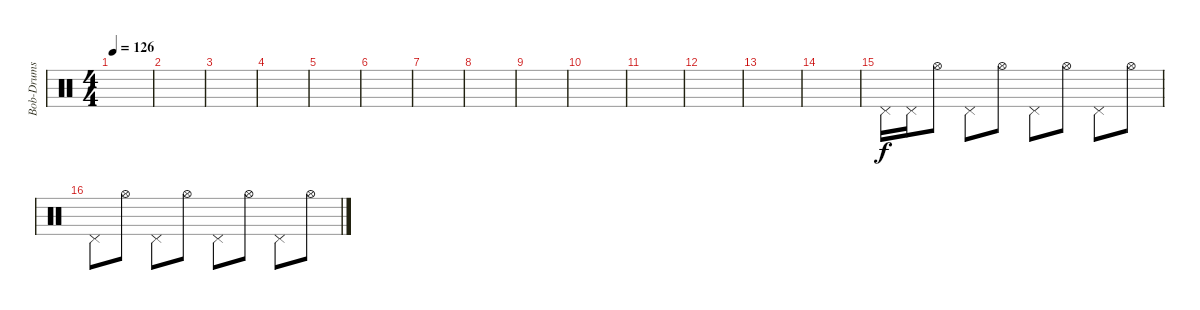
\track ("Bob-Drums" "Bob-Drums") {instrument percussion}
\staff {score}
\articulation defaults
\ts (4 4)
\tempo 126
\clef neutral
\ks c
|
|
|
|
|
|
|
|
|
|
|
|
|
|
"Pedal Hi-Hat (hit)".16 "Pedal Hi-Hat (hit)".16 "Hi-Hat (open)".8 "Pedal Hi-Hat (hit)".8 "Hi-Hat (open)".8 "Pedal Hi-Hat (hit)".8 "Hi-Hat (open)".8 "Pedal Hi-Hat (hit)".8 "Hi-Hat (open)".8 |
"Pedal Hi-Hat (hit)".8 "Hi-Hat (open)".8 "Pedal Hi-Hat (hit)".8 "Hi-Hat (open)".8 "Pedal Hi-Hat (hit)".8 "Hi-Hat (open)".8 "Pedal Hi-Hat (hit)".8 "Hi-Hat (open)".8
